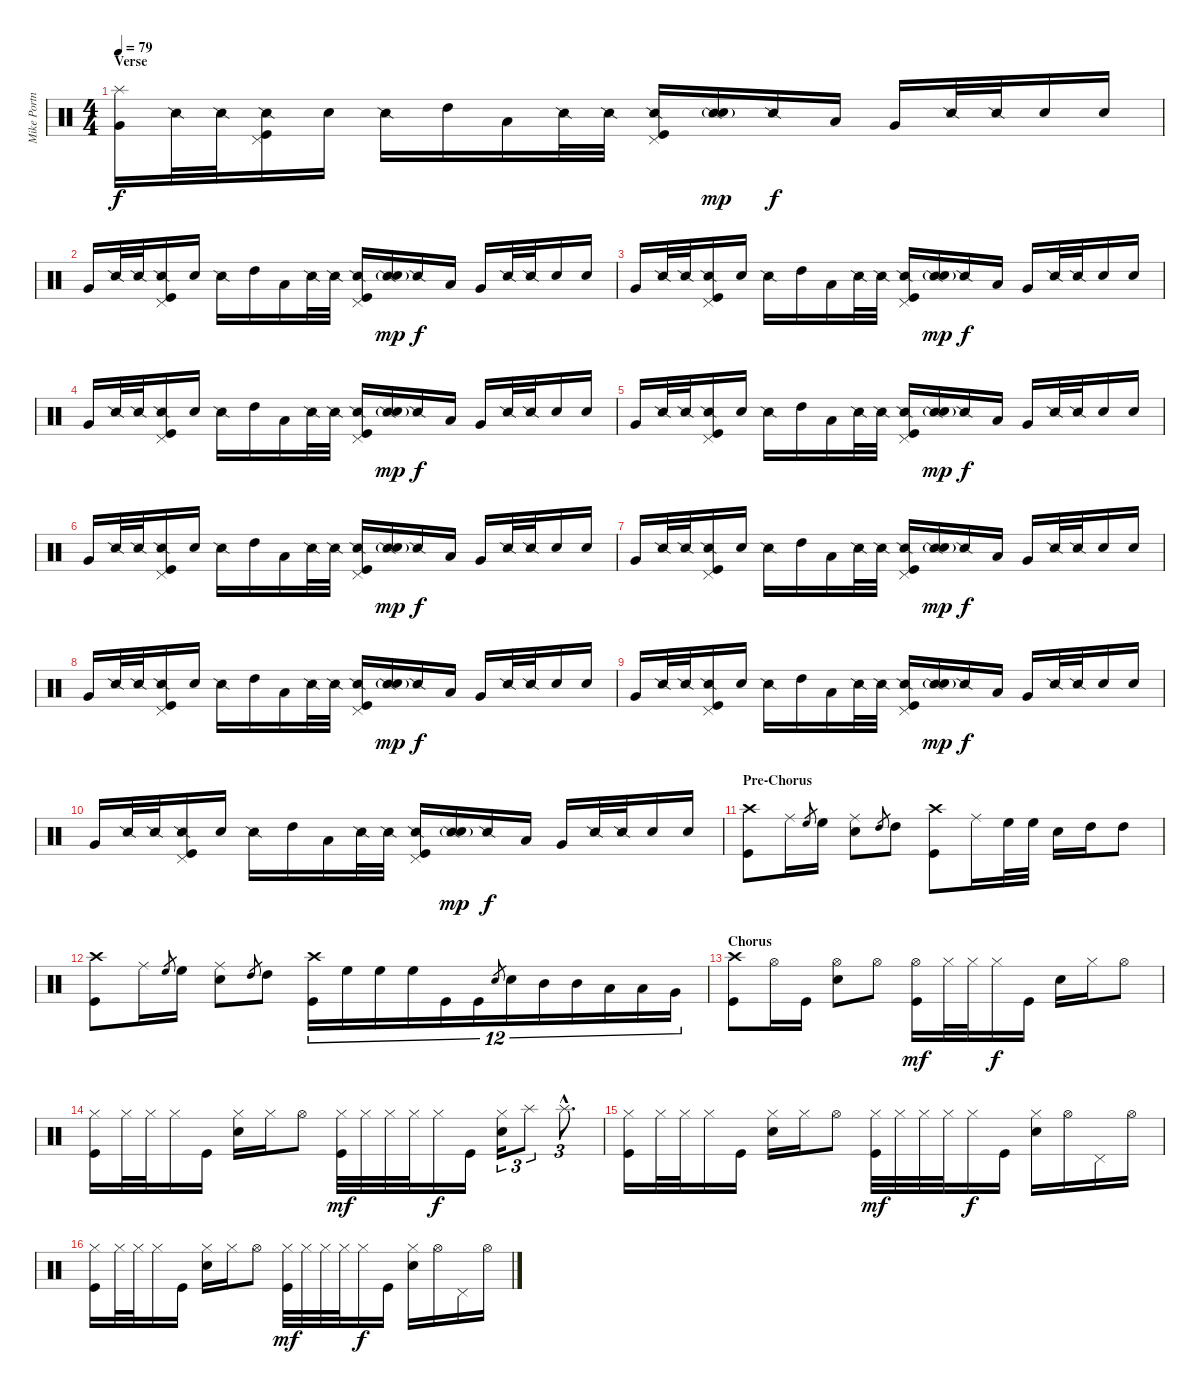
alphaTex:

\track ("Mike Portnoy" "Mike Portn") {instrument percussion}
\staff {score}
\articulation defaults
\ts (4 4)
\section ("" "Verse")
\tempo 79
\clef neutral
\ks c
("Splash (hit)" "Very Low Tom (hit)").16{dy f} "Snare (side stick) 2".32 "Snare (side stick) 2".32 ("Snare (side stick) 2" "Pedal Hi-Hat (hit)" "Kick (hit)").16 "Electric Snare (hit)".16 "Snare (side stick) 2".16 "High Tom (hit)".16 "Low Tom (hit)".16 "Snare (side stick) 2".32 "Snare (side stick) 2".32 ("Snare (side stick) 2" "Pedal Hi-Hat (hit)" "Kick (hit)").16 ("Snare (side stick) 2" "Electric Snare (hit)"{g}).16{dy mp} "Snare (side stick) 2".16{dy f} "Low Tom (hit)".16 "Very Low Tom (hit)".16 "Snare (side stick) 2".32 "Snare (side stick) 2".32 "Electric Snare (hit)".16 "Electric Snare (hit)".16 |
"Very Low Tom (hit)".16 "Snare (side stick) 2".32 "Snare (side stick) 2".32 ("Snare (side stick) 2" "Pedal Hi-Hat (hit)" "Kick (hit)").16 "Electric Snare (hit)".16 "Snare (side stick) 2".16 "High Tom (hit)".16 "Low Tom (hit)".16 "Snare (side stick) 2".32 "Snare (side stick) 2".32 ("Snare (side stick) 2" "Pedal Hi-Hat (hit)" "Kick (hit)").16 ("Snare (side stick) 2" "Electric Snare (hit)"{g}).16{dy mp} "Snare (side stick) 2".16{dy f} "Low Tom (hit)".16 "Very Low Tom (hit)".16 "Snare (side stick) 2".32 "Snare (side stick) 2".32 "Electric Snare (hit)".16 "Electric Snare (hit)".16 |
"Very Low Tom (hit)".16 "Snare (side stick) 2".32 "Snare (side stick) 2".32 ("Snare (side stick) 2" "Pedal Hi-Hat (hit)" "Kick (hit)").16 "Electric Snare (hit)".16 "Snare (side stick) 2".16 "High Tom (hit)".16 "Low Tom (hit)".16 "Snare (side stick) 2".32 "Snare (side stick) 2".32 ("Snare (side stick) 2" "Pedal Hi-Hat (hit)" "Kick (hit)").16 ("Snare (side stick) 2" "Electric Snare (hit)"{g}).16{dy mp} "Snare (side stick) 2".16{dy f} "Low Tom (hit)".16 "Very Low Tom (hit)".16 "Snare (side stick) 2".32 "Snare (side stick) 2".32 "Electric Snare (hit)".16 "Electric Snare (hit)".16 |
"Very Low Tom (hit)".16 "Snare (side stick) 2".32 "Snare (side stick) 2".32 ("Snare (side stick) 2" "Pedal Hi-Hat (hit)" "Kick (hit)").16 "Electric Snare (hit)".16 "Snare (side stick) 2".16 "High Tom (hit)".16 "Low Tom (hit)".16 "Snare (side stick) 2".32 "Snare (side stick) 2".32 ("Snare (side stick) 2" "Pedal Hi-Hat (hit)" "Kick (hit)").16 ("Snare (side stick) 2" "Electric Snare (hit)"{g}).16{dy mp} "Snare (side stick) 2".16{dy f} "Low Tom (hit)".16 "Very Low Tom (hit)".16 "Snare (side stick) 2".32 "Snare (side stick) 2".32 "Electric Snare (hit)".16 "Electric Snare (hit)".16 |
"Very Low Tom (hit)".16 "Snare (side stick) 2".32 "Snare (side stick) 2".32 ("Snare (side stick) 2" "Pedal Hi-Hat (hit)" "Kick (hit)").16 "Electric Snare (hit)".16 "Snare (side stick) 2".16 "High Tom (hit)".16 "Low Tom (hit)".16 "Snare (side stick) 2".32 "Snare (side stick) 2".32 ("Snare (side stick) 2" "Pedal Hi-Hat (hit)" "Kick (hit)").16 ("Snare (side stick) 2" "Electric Snare (hit)"{g}).16{dy mp} "Snare (side stick) 2".16{dy f} "Low Tom (hit)".16 "Very Low Tom (hit)".16 "Snare (side stick) 2".32 "Snare (side stick) 2".32 "Electric Snare (hit)".16 "Electric Snare (hit)".16 |
"Very Low Tom (hit)".16 "Snare (side stick) 2".32 "Snare (side stick) 2".32 ("Snare (side stick) 2" "Pedal Hi-Hat (hit)" "Kick (hit)").16 "Electric Snare (hit)".16 "Snare (side stick) 2".16 "High Tom (hit)".16 "Low Tom (hit)".16 "Snare (side stick) 2".32 "Snare (side stick) 2".32 ("Snare (side stick) 2" "Pedal Hi-Hat (hit)" "Kick (hit)").16 ("Snare (side stick) 2" "Electric Snare (hit)"{g}).16{dy mp} "Snare (side stick) 2".16{dy f} "Low Tom (hit)".16 "Very Low Tom (hit)".16 "Snare (side stick) 2".32 "Snare (side stick) 2".32 "Electric Snare (hit)".16 "Electric Snare (hit)".16 |
"Very Low Tom (hit)".16 "Snare (side stick) 2".32 "Snare (side stick) 2".32 ("Snare (side stick) 2" "Pedal Hi-Hat (hit)" "Kick (hit)").16 "Electric Snare (hit)".16 "Snare (side stick) 2".16 "High Tom (hit)".16 "Low Tom (hit)".16 "Snare (side stick) 2".32 "Snare (side stick) 2".32 ("Snare (side stick) 2" "Pedal Hi-Hat (hit)" "Kick (hit)").16 ("Snare (side stick) 2" "Electric Snare (hit)"{g}).16{dy mp} "Snare (side stick) 2".16{dy f} "Low Tom (hit)".16 "Very Low Tom (hit)".16 "Snare (side stick) 2".32 "Snare (side stick) 2".32 "Electric Snare (hit)".16 "Electric Snare (hit)".16 |
"Very Low Tom (hit)".16 "Snare (side stick) 2".32 "Snare (side stick) 2".32 ("Snare (side stick) 2" "Pedal Hi-Hat (hit)" "Kick (hit)").16 "Electric Snare (hit)".16 "Snare (side stick) 2".16 "High Tom (hit)".16 "Low Tom (hit)".16 "Snare (side stick) 2".32 "Snare (side stick) 2".32 ("Snare (side stick) 2" "Pedal Hi-Hat (hit)" "Kick (hit)").16 ("Snare (side stick) 2" "Electric Snare (hit)"{g}).16{dy mp} "Snare (side stick) 2".16{dy f} "Low Tom (hit)".16 "Very Low Tom (hit)".16 "Snare (side stick) 2".32 "Snare (side stick) 2".32 "Electric Snare (hit)".16 "Electric Snare (hit)".16 |
"Very Low Tom (hit)".16 "Snare (side stick) 2".32 "Snare (side stick) 2".32 ("Snare (side stick) 2" "Pedal Hi-Hat (hit)" "Kick (hit)").16 "Electric Snare (hit)".16 "Snare (side stick) 2".16 "High Tom (hit)".16 "Low Tom (hit)".16 "Snare (side stick) 2".32 "Snare (side stick) 2".32 ("Snare (side stick) 2" "Pedal Hi-Hat (hit)" "Kick (hit)").16 ("Snare (side stick) 2" "Electric Snare (hit)"{g}).16{dy mp} "Snare (side stick) 2".16{dy f} "Low Tom (hit)".16 "Very Low Tom (hit)".16 "Snare (side stick) 2".32 "Snare (side stick) 2".32 "Electric Snare (hit)".16 "Electric Snare (hit)".16 |
"Very Low Tom (hit)".16 "Snare (side stick) 2".32 "Snare (side stick) 2".32 ("Snare (side stick) 2" "Pedal Hi-Hat (hit)" "Kick (hit)").16 "Electric Snare (hit)".16 "Snare (side stick) 2".16 "High Tom (hit)".16 "Low Tom (hit)".16 "Snare (side stick) 2".32 "Snare (side stick) 2".32 ("Snare (side stick) 2" "Pedal Hi-Hat (hit)" "Kick (hit)").16 ("Snare (side stick) 2" "Electric Snare (hit)"{g}).16{dy mp} "Snare (side stick) 2".16{dy f} "Low Tom (hit)".16 "Very Low Tom (hit)".16 "Snare (side stick) 2".32 "Snare (side stick) 2".32 "Electric Snare (hit)".16 "Electric Snare (hit)".16 |
\section ("" "Pre-Chorus")
("Crash high (hit)" "Kick (hit)").8{volume 15} "Ride (middle)".16 "High Floor Tom (hit)".8{gr} "High Floor Tom (hit)".16 ("Ride (middle)" "Electric Snare (hit)").8 "High Tom (hit)".8{gr} "High Tom (hit)".8 ("Crash high (hit)" "Kick (hit)").8 "Ride (middle)".16 "High Floor Tom (hit)".32 "High Floor Tom (hit)".32 "Electric Snare (hit)".16 "High Tom (hit)".16 "High Tom (hit)".8 |
("Crash high (hit)" "Kick (hit)").8{volume 15} "Ride (middle)".16 "High Floor Tom (hit)".8{gr} "High Floor Tom (hit)".16 ("Ride (middle)" "Electric Snare (hit)").8 "High Tom (hit)".8{gr} "High Tom (hit)".8 ("Crash high (hit)" "Kick (hit)").16{tu (12 8)} "High Floor Tom (hit)".16{tu (12 8)} "High Floor Tom (hit)".16{tu (12 8)} "High Floor Tom (hit)".16{tu (12 8)} "Kick (hit)".16{tu (12 8)} "Kick (hit)".16{tu (12 8)} "Electric Snare (hit)".8{gr} "Electric Snare (hit)".16{tu (12 8)} "Mid Tom (hit)".16{tu (12 8)} "Mid Tom (hit)".16{tu (12 8)} "Low Tom (hit)".16{tu (12 8)} "Low Tom (hit)".16{tu (12 8)} "Very Low Tom (hit)".16{tu (12 8)} |
\section ("" "Chorus")
("Crash high (hit)" "Kick (hit)").8 "Hi-Hat (open)".16 "Kick (hit)".16 ("Hi-Hat (open)" "Electric Snare (hit)").8 "Hi-Hat (open)".8 ("Hi-Hat (open)" "Kick (hit)").16{dy mf} "Hi-Hat (closed)".32 "Hi-Hat (closed)".32 "Hi-Hat (closed)".16{dy f} "Kick (hit)".16 "Electric Snare (hit)".16 "Hi-Hat (closed)".16 "Hi-Hat (open)".8 |
("Hi-Hat (closed)" "Kick (hit)").16 "Hi-Hat (closed)".32 "Hi-Hat (closed)".32 "Hi-Hat (closed)".16 "Kick (hit)".16 ("Hi-Hat (closed)" "Electric Snare (hit)").16 "Hi-Hat (closed)".16 "Hi-Hat (open)".8 ("Hi-Hat (closed)" "Kick (hit)").32{dy mf} "Hi-Hat (closed)".32 "Hi-Hat (closed)".32 "Hi-Hat (closed)".32 "Hi-Hat (closed)".16{dy f} "Kick (hit)".16 ("Hi-Hat (closed)" "Electric Snare (hit)").16{tu (3 2)} "Splash (hit)".8{tu (3 2)} "Splash (hit)"{hac}.8{d tu (3 2)} |
("Hi-Hat (closed)" "Kick (hit)").16 "Hi-Hat (closed)".32 "Hi-Hat (closed)".32 "Hi-Hat (closed)".16 "Kick (hit)".16 ("Hi-Hat (closed)" "Electric Snare (hit)").16 "Hi-Hat (closed)".16 "Hi-Hat (open)".8 ("Hi-Hat (closed)" "Kick (hit)").32{dy mf} "Hi-Hat (closed)".32 "Hi-Hat (closed)".32 "Hi-Hat (closed)".32 "Hi-Hat (closed)".16{dy f} "Kick (hit)".16 ("Hi-Hat (closed)" "Electric Snare (hit)").16 "Hi-Hat (open)".16 "Pedal Hi-Hat (hit)".16 "Hi-Hat (open)".16 |
("Hi-Hat (closed)" "Kick (hit)").16 "Hi-Hat (closed)".32 "Hi-Hat (closed)".32 "Hi-Hat (closed)".16 "Kick (hit)".16 ("Hi-Hat (closed)" "Electric Snare (hit)").16 "Hi-Hat (closed)".16 "Hi-Hat (open)".8 ("Hi-Hat (closed)" "Kick (hit)").32{dy mf} "Hi-Hat (closed)".32 "Hi-Hat (closed)".32 "Hi-Hat (closed)".32 "Hi-Hat (closed)".16{dy f} "Kick (hit)".16 ("Hi-Hat (closed)" "Electric Snare (hit)").16 "Hi-Hat (open)".16 "Pedal Hi-Hat (hit)".16 "Hi-Hat (open)".16
